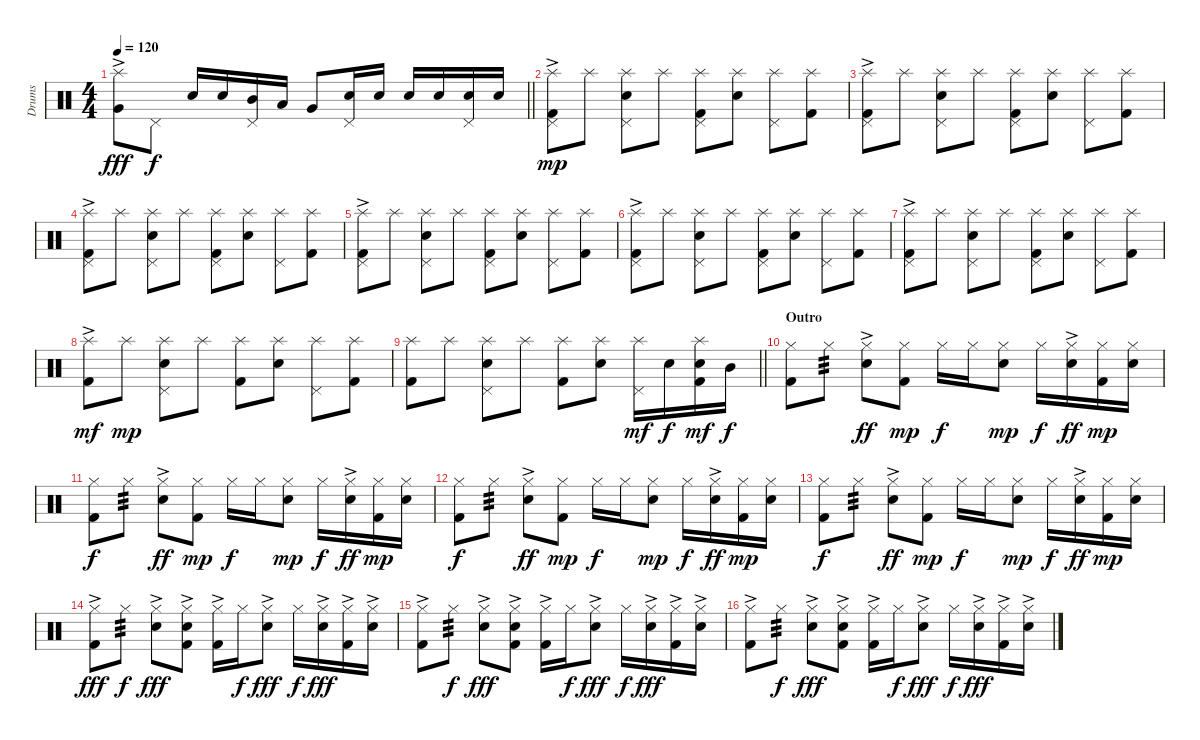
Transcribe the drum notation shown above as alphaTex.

\track ("Drums" "Drums") {instrument percussion}
\staff {score}
\articulation defaults
\ts (4 4)
\tempo 120
\clef neutral
\barLineRight lightlight
\ks c
("Splash (hit)"{ac} "Very Low Tom (hit)").8{dy fff} "Pedal Hi-Hat (hit)".8{dy f} "Snare (hit) 2".16 "Snare (hit) 2".16 ("Mid Tom (hit)" "Pedal Hi-Hat (hit)").16 "Low Tom (hit)".16 "Very Low Tom (hit)".8 ("Snare (hit) 2" "Pedal Hi-Hat (hit)").16 "Snare (hit) 2".16 "Snare (hit) 2".16 "Snare (hit) 2".16 ("Snare (hit) 2" "Pedal Hi-Hat (hit)").16 "Snare (hit) 2".16 |
("Splash (hit)"{ac} "Pedal Hi-Hat (hit)" "Kick (hit) 2").8{dy mp} "Splash (hit)".8 ("Splash (hit)" "Snare (hit) 2" "Pedal Hi-Hat (hit)").8 "Splash (hit)".8 ("Splash (hit)" "Pedal Hi-Hat (hit)" "Kick (hit) 2").8 ("Splash (hit)" "Snare (hit) 2").8 ("Splash (hit)" "Pedal Hi-Hat (hit)").8 ("Splash (hit)" "Kick (hit) 2").8 |
("Splash (hit)"{ac} "Pedal Hi-Hat (hit)" "Kick (hit) 2").8 "Splash (hit)".8 ("Splash (hit)" "Snare (hit) 2" "Pedal Hi-Hat (hit)").8 "Splash (hit)".8 ("Splash (hit)" "Pedal Hi-Hat (hit)" "Kick (hit) 2").8 ("Splash (hit)" "Snare (hit) 2").8 ("Splash (hit)" "Pedal Hi-Hat (hit)").8 ("Splash (hit)" "Kick (hit) 2").8 |
("Splash (hit)"{ac} "Pedal Hi-Hat (hit)" "Kick (hit) 2").8 "Splash (hit)".8 ("Splash (hit)" "Snare (hit) 2" "Pedal Hi-Hat (hit)").8 "Splash (hit)".8 ("Splash (hit)" "Pedal Hi-Hat (hit)" "Kick (hit) 2").8 ("Splash (hit)" "Snare (hit) 2").8 ("Splash (hit)" "Pedal Hi-Hat (hit)").8 ("Splash (hit)" "Kick (hit) 2").8 |
("Splash (hit)"{ac} "Pedal Hi-Hat (hit)" "Kick (hit) 2").8 "Splash (hit)".8 ("Splash (hit)" "Snare (hit) 2" "Pedal Hi-Hat (hit)").8 "Splash (hit)".8 ("Splash (hit)" "Pedal Hi-Hat (hit)" "Kick (hit) 2").8 ("Splash (hit)" "Snare (hit) 2").8 ("Splash (hit)" "Pedal Hi-Hat (hit)").8 ("Splash (hit)" "Kick (hit) 2").8 |
("Splash (hit)"{ac} "Pedal Hi-Hat (hit)" "Kick (hit) 2").8 "Splash (hit)".8 ("Splash (hit)" "Snare (hit) 2" "Pedal Hi-Hat (hit)").8 "Splash (hit)".8 ("Splash (hit)" "Pedal Hi-Hat (hit)" "Kick (hit) 2").8 ("Splash (hit)" "Snare (hit) 2").8 ("Splash (hit)" "Pedal Hi-Hat (hit)").8 ("Splash (hit)" "Kick (hit) 2").8 |
("Splash (hit)"{ac} "Pedal Hi-Hat (hit)" "Kick (hit) 2").8 "Splash (hit)".8 ("Splash (hit)" "Snare (hit) 2" "Pedal Hi-Hat (hit)").8 "Splash (hit)".8 ("Splash (hit)" "Pedal Hi-Hat (hit)" "Kick (hit) 2").8 ("Splash (hit)" "Snare (hit) 2").8 ("Splash (hit)" "Pedal Hi-Hat (hit)").8 ("Splash (hit)" "Kick (hit) 2").8 |
("Splash (hit)"{ac} "Kick (hit) 2").8{dy mf} "Splash (hit)".8{dy mp} ("Splash (hit)" "Snare (hit) 2" "Pedal Hi-Hat (hit)").8 "Splash (hit)".8 ("Splash (hit)" "Kick (hit) 2").8 ("Splash (hit)" "Snare (hit) 2").8 ("Splash (hit)" "Pedal Hi-Hat (hit)").8 ("Splash (hit)" "Kick (hit) 2").8 |
\barLineRight lightlight
("Splash (hit)" "Kick (hit) 2").8 "Splash (hit)".8 ("Splash (hit)" "Snare (hit) 2" "Pedal Hi-Hat (hit)").8 "Splash (hit)".8 ("Splash (hit)" "Kick (hit) 2").8 ("Splash (hit)" "Snare (hit) 2").8 ("Splash (hit)" "Pedal Hi-Hat (hit)").16{dy mf} "Snare (hit) 2".16{dy f} ("Splash (hit)" "Snare (hit) 2" "Kick (hit) 2").16{dy mf} "Mid Tom (hit)".16{dy f} |
\section ("" "Outro")
("Hi-Hat (closed)" "Kick (hit) 2").8 "Hi-Hat (closed)".8{tp 3} ("Hi-Hat (closed)" "Snare (hit) 2"{ac}).8{dy ff} ("Hi-Hat (closed)" "Kick (hit) 2").8{dy mp} "Hi-Hat (closed)".16{dy f} "Hi-Hat (closed)".16 ("Hi-Hat (closed)" "Snare (hit) 2").8{dy mp} "Hi-Hat (closed)".16{dy f} ("Hi-Hat (closed)" "Snare (hit) 2"{ac}).16{dy ff} ("Hi-Hat (closed)" "Kick (hit) 2").16{dy mp} ("Hi-Hat (closed)" "Snare (hit) 2").16 |
("Hi-Hat (closed)" "Kick (hit) 2").8{dy f} "Hi-Hat (closed)".8{tp 3} ("Hi-Hat (closed)" "Snare (hit) 2"{ac}).8{dy ff} ("Hi-Hat (closed)" "Kick (hit) 2").8{dy mp} "Hi-Hat (closed)".16{dy f} "Hi-Hat (closed)".16 ("Hi-Hat (closed)" "Snare (hit) 2").8{dy mp} "Hi-Hat (closed)".16{dy f} ("Hi-Hat (closed)" "Snare (hit) 2"{ac}).16{dy ff} ("Hi-Hat (closed)" "Kick (hit) 2").16{dy mp} ("Hi-Hat (closed)" "Snare (hit) 2").16 |
("Hi-Hat (closed)" "Kick (hit) 2").8{dy f} "Hi-Hat (closed)".8{tp 3} ("Hi-Hat (closed)" "Snare (hit) 2"{ac}).8{dy ff} ("Hi-Hat (closed)" "Kick (hit) 2").8{dy mp} "Hi-Hat (closed)".16{dy f} "Hi-Hat (closed)".16 ("Hi-Hat (closed)" "Snare (hit) 2").8{dy mp} "Hi-Hat (closed)".16{dy f} ("Hi-Hat (closed)" "Snare (hit) 2"{ac}).16{dy ff} ("Hi-Hat (closed)" "Kick (hit) 2").16{dy mp} ("Hi-Hat (closed)" "Snare (hit) 2").16 |
("Hi-Hat (closed)" "Kick (hit) 2").8{dy f} "Hi-Hat (closed)".8{tp 3} ("Hi-Hat (closed)" "Snare (hit) 2"{ac}).8{dy ff} ("Hi-Hat (closed)" "Kick (hit) 2").8{dy mp} "Hi-Hat (closed)".16{dy f} "Hi-Hat (closed)".16 ("Hi-Hat (closed)" "Snare (hit) 2").8{dy mp} "Hi-Hat (closed)".16{dy f} ("Hi-Hat (closed)" "Snare (hit) 2"{ac}).16{dy ff} ("Hi-Hat (closed)" "Kick (hit) 2").16{dy mp} ("Hi-Hat (closed)" "Snare (hit) 2").16 |
("Hi-Hat (closed)" "Kick (hit) 2"{ac}).8{dy fff} "Hi-Hat (closed)".8{tp 3 dy f} ("Hi-Hat (closed)" "Snare (hit) 2"{ac}).8{dy fff} ("Hi-Hat (closed)" "Snare (hit) 2"{ac} "Kick (hit) 2"{ac}).8 ("Hi-Hat (closed)" "Kick (hit) 2"{ac}).16 "Hi-Hat (closed)".16{dy f} ("Hi-Hat (closed)" "Snare (hit) 2"{ac}).8{dy fff} "Hi-Hat (closed)".16{dy f} ("Hi-Hat (closed)" "Snare (hit) 2"{ac}).16{dy fff} ("Hi-Hat (closed)" "Kick (hit) 2"{ac}).16 ("Hi-Hat (closed)" "Snare (hit) 2"{ac}).16 |
("Hi-Hat (closed)" "Kick (hit) 2"{ac}).8 "Hi-Hat (closed)".8{tp 3 dy f} ("Hi-Hat (closed)" "Snare (hit) 2"{ac}).8{dy fff} ("Hi-Hat (closed)" "Snare (hit) 2"{ac} "Kick (hit) 2"{ac}).8 ("Hi-Hat (closed)" "Kick (hit) 2"{ac}).16 "Hi-Hat (closed)".16{dy f} ("Hi-Hat (closed)" "Snare (hit) 2"{ac}).8{dy fff} "Hi-Hat (closed)".16{dy f} ("Hi-Hat (closed)" "Snare (hit) 2"{ac}).16{dy fff} ("Hi-Hat (closed)" "Kick (hit) 2"{ac}).16 ("Hi-Hat (closed)" "Snare (hit) 2"{ac}).16 |
("Hi-Hat (closed)" "Kick (hit) 2"{ac}).8 "Hi-Hat (closed)".8{tp 3 dy f} ("Hi-Hat (closed)" "Snare (hit) 2"{ac}).8{dy fff} ("Hi-Hat (closed)" "Snare (hit) 2"{ac} "Kick (hit) 2"{ac}).8 ("Hi-Hat (closed)" "Kick (hit) 2"{ac}).16 "Hi-Hat (closed)".16{dy f} ("Hi-Hat (closed)" "Snare (hit) 2"{ac}).8{dy fff} "Hi-Hat (closed)".16{dy f} ("Hi-Hat (closed)" "Snare (hit) 2"{ac}).16{dy fff} ("Hi-Hat (closed)" "Kick (hit) 2"{ac}).16 ("Hi-Hat (closed)" "Snare (hit) 2"{ac}).16
